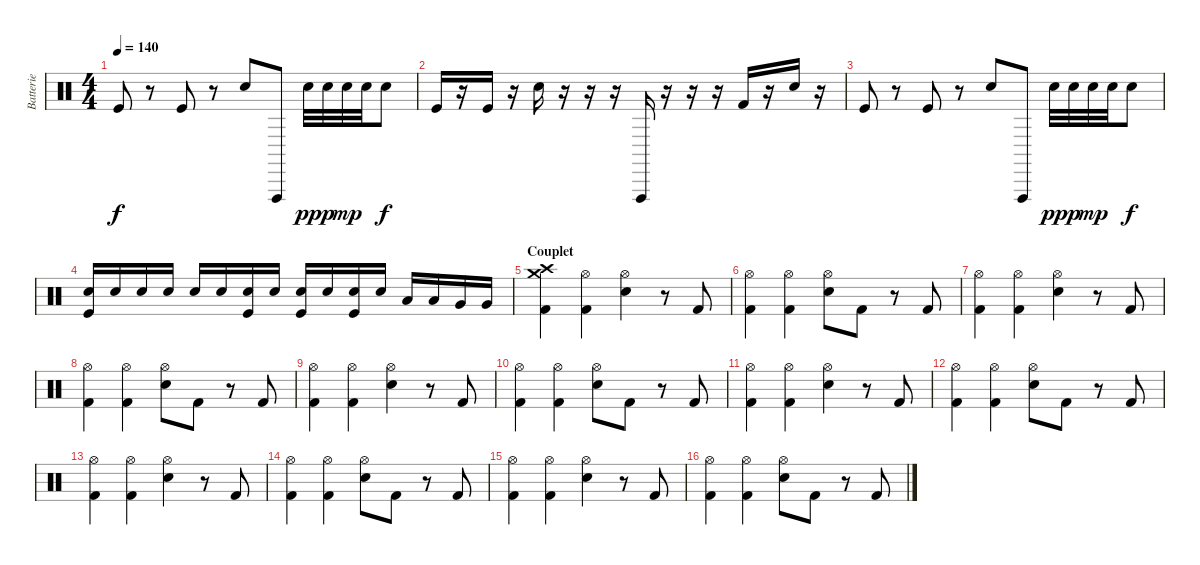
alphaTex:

\track ("Batterie" "Batterie") {instrument percussion}
\staff {score}
\articulation defaults
\ts (4 4)
\tempo 140
\clef neutral
\ks c "Kick (hit)".8{dy f}
r.8 "Kick (hit)".8 r.8 "Snare (hit) 2".8 "Vibraslap (hit)".8 "Snare (hit) 2".32{dy pp} "Snare (hit) 2".32{dy p} "Snare (hit) 2".32{dy mp} "Snare (hit) 2".32 "Snare (hit) 2".8{dy f} |
"Kick (hit)".16 r.16 "Kick (hit)".16 r.16 "Snare (hit) 2".16 r.16 r.16 r.16 "Vibraslap (hit)".16 r.16 r.16 r.16 "Kick (hit) 2".16 r.16 "Snare (hit) 2".16 r.16 |
"Kick (hit)".8 r.8 "Kick (hit)".8 r.8 "Snare (hit) 2".8 "Vibraslap (hit)".8 "Snare (hit) 2".32{dy pp} "Snare (hit) 2".32{dy p} "Snare (hit) 2".32{dy mp} "Snare (hit) 2".32 "Snare (hit) 2".8{dy f} |
("Snare (hit) 2" "Kick (hit)").16 "Snare (hit) 2".16 "Electric Snare (hit)".16 "Snare (hit) 2".16 "Electric Snare (hit)".16 "Electric Snare (hit)".16 ("Snare (hit) 2" "Kick (hit)").16 "Electric Snare (hit)".16 ("Snare (hit) 2" "Kick (hit)").16 "Snare (hit) 2".16 ("Electric Snare (hit)" "Kick (hit)").16 "Snare (hit) 2".16 "Low Tom (hit)".16 "Low Tom (hit)".16 "Very Low Tom (hit)".16 "Very Low Tom (hit)".16 |
\section ("" "Couplet")
("Crash high (hit)" "Crash medium (hit)" "Kick (hit) 2").4 ("Hi-Hat (open)" "Kick (hit) 2").4 ("Hi-Hat (open)" "Electric Snare (hit)").4 r.8 "Kick (hit) 2".8 |
("Hi-Hat (open)" "Kick (hit) 2").4 ("Hi-Hat (open)" "Kick (hit) 2").4 ("Hi-Hat (open)" "Electric Snare (hit)").8 "Kick (hit) 2".8 r.8 "Kick (hit) 2".8 |
("Hi-Hat (open)" "Kick (hit) 2").4 ("Hi-Hat (open)" "Kick (hit) 2").4 ("Hi-Hat (open)" "Electric Snare (hit)").4 r.8 "Kick (hit) 2".8 |
("Hi-Hat (open)" "Kick (hit) 2").4 ("Hi-Hat (open)" "Kick (hit) 2").4 ("Hi-Hat (open)" "Electric Snare (hit)").8 "Kick (hit) 2".8 r.8 "Kick (hit) 2".8 |
("Hi-Hat (open)" "Kick (hit) 2").4 ("Hi-Hat (open)" "Kick (hit) 2").4 ("Hi-Hat (open)" "Electric Snare (hit)").4 r.8 "Kick (hit) 2".8 |
("Hi-Hat (open)" "Kick (hit) 2").4 ("Hi-Hat (open)" "Kick (hit) 2").4 ("Hi-Hat (open)" "Electric Snare (hit)").8 "Kick (hit) 2".8 r.8 "Kick (hit) 2".8 |
("Hi-Hat (open)" "Kick (hit) 2").4 ("Hi-Hat (open)" "Kick (hit) 2").4 ("Hi-Hat (open)" "Electric Snare (hit)").4 r.8 "Kick (hit) 2".8 |
("Hi-Hat (open)" "Kick (hit) 2").4 ("Hi-Hat (open)" "Kick (hit) 2").4 ("Hi-Hat (open)" "Electric Snare (hit)").8 "Kick (hit) 2".8 r.8 "Kick (hit) 2".8 |
("Hi-Hat (open)" "Kick (hit) 2").4 ("Hi-Hat (open)" "Kick (hit) 2").4 ("Hi-Hat (open)" "Electric Snare (hit)").4 r.8 "Kick (hit) 2".8 |
("Hi-Hat (open)" "Kick (hit) 2").4 ("Hi-Hat (open)" "Kick (hit) 2").4 ("Hi-Hat (open)" "Electric Snare (hit)").8 "Kick (hit) 2".8 r.8 "Kick (hit) 2".8 |
("Hi-Hat (open)" "Kick (hit) 2").4 ("Hi-Hat (open)" "Kick (hit) 2").4 ("Hi-Hat (open)" "Electric Snare (hit)").4 r.8 "Kick (hit) 2".8 |
("Hi-Hat (open)" "Kick (hit) 2").4 ("Hi-Hat (open)" "Kick (hit) 2").4 ("Hi-Hat (open)" "Electric Snare (hit)").8 "Kick (hit) 2".8 r.8 "Kick (hit) 2".8
